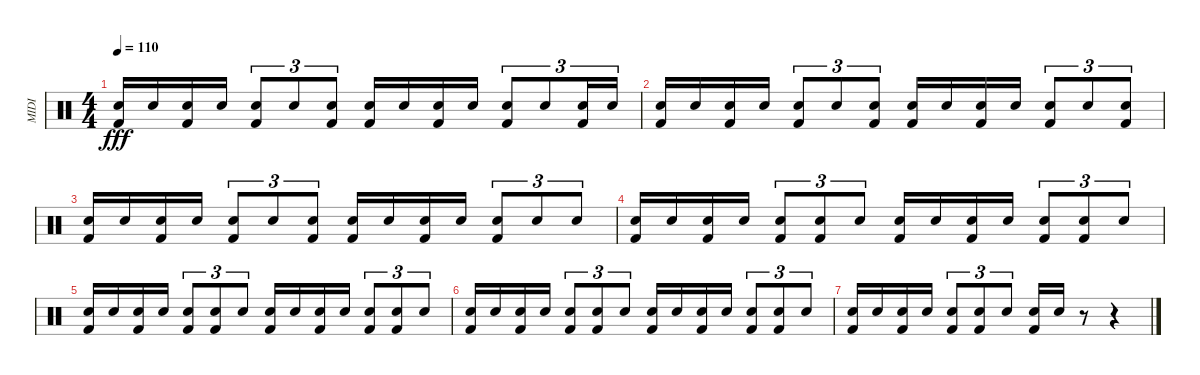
\track ("MIDI" "MIDI") {instrument percussion}
\staff
\articulation defaults
\ts (4 4)
\tempo 110
\clef neutral
\ks c
("Kick (hit) 2" "Snare (hit)").16{dy fff} "Snare (hit)".16 ("Kick (hit) 2" "Snare (hit)").16 "Snare (hit)".16 ("Kick (hit) 2" "Snare (hit)").8{tu (3 2)} "Snare (hit)".8{tu (3 2)} ("Kick (hit) 2" "Snare (hit)").8{tu (3 2)} ("Kick (hit) 2" "Snare (hit)").16 "Snare (hit)".16 ("Kick (hit) 2" "Snare (hit)").16 "Snare (hit)".16 ("Kick (hit) 2" "Snare (hit)").8{tu (3 2)} "Snare (hit)".8{tu (3 2)} ("Kick (hit) 2" "Snare (hit)").16{tu (3 2)} "Snare (hit)".16{tu (3 2)} |
("Kick (hit) 2" "Snare (hit)").16 "Snare (hit)".16 ("Kick (hit) 2" "Snare (hit)").16 "Snare (hit)".16 ("Kick (hit) 2" "Snare (hit)").8{tu (3 2)} "Snare (hit)".8{tu (3 2)} ("Kick (hit) 2" "Snare (hit)").8{tu (3 2)} ("Kick (hit) 2" "Snare (hit)").16 "Snare (hit)".16 ("Kick (hit) 2" "Snare (hit)").16 "Snare (hit)".16 ("Kick (hit) 2" "Snare (hit)").8{tu (3 2)} "Snare (hit)".8{tu (3 2)} ("Kick (hit) 2" "Snare (hit)").8{tu (3 2)} |
("Kick (hit) 2" "Snare (hit)").16 "Snare (hit)".16 ("Kick (hit) 2" "Snare (hit)").16 "Snare (hit)".16 ("Kick (hit) 2" "Snare (hit)").8{tu (3 2)} "Snare (hit)".8{tu (3 2)} ("Kick (hit) 2" "Snare (hit)").8{tu (3 2)} ("Kick (hit) 2" "Snare (hit)").16 "Snare (hit)".16 ("Kick (hit) 2" "Snare (hit)").16 "Snare (hit)".16 ("Kick (hit) 2" "Snare (hit)").8{tu (3 2)} "Snare (hit)".8{tu (3 2)} "Snare (hit)".8{tu (3 2)} |
("Kick (hit) 2" "Snare (hit)").16 "Snare (hit)".16 ("Kick (hit) 2" "Snare (hit)").16 "Snare (hit)".16 ("Kick (hit) 2" "Snare (hit)").8{tu (3 2)} ("Kick (hit) 2" "Snare (hit)").8{tu (3 2)} "Snare (hit)".8{tu (3 2)} ("Kick (hit) 2" "Snare (hit)").16 "Snare (hit)".16 ("Kick (hit) 2" "Snare (hit)").16 "Snare (hit)".16 ("Kick (hit) 2" "Snare (hit)").8{tu (3 2)} ("Kick (hit) 2" "Snare (hit)").8{tu (3 2)} "Snare (hit)".8{tu (3 2)} |
("Kick (hit) 2" "Snare (hit)").16 "Snare (hit)".16 ("Kick (hit) 2" "Snare (hit)").16 "Snare (hit)".16 ("Kick (hit) 2" "Snare (hit)").8{tu (3 2)} ("Kick (hit) 2" "Snare (hit)").8{tu (3 2)} "Snare (hit)".8{tu (3 2)} ("Kick (hit) 2" "Snare (hit)").16 "Snare (hit)".16 ("Kick (hit) 2" "Snare (hit)").16 "Snare (hit)".16 ("Kick (hit) 2" "Snare (hit)").8{tu (3 2)} ("Kick (hit) 2" "Snare (hit)").8{tu (3 2)} "Snare (hit)".8{tu (3 2)} |
("Kick (hit) 2" "Snare (hit)").16 "Snare (hit)".16 ("Kick (hit) 2" "Snare (hit)").16 "Snare (hit)".16 ("Kick (hit) 2" "Snare (hit)").8{tu (3 2)} ("Kick (hit) 2" "Snare (hit)").8{tu (3 2)} "Snare (hit)".8{tu (3 2)} ("Kick (hit) 2" "Snare (hit)").16 "Snare (hit)".16 ("Kick (hit) 2" "Snare (hit)").16 "Snare (hit)".16 ("Kick (hit) 2" "Snare (hit)").8{tu (3 2)} ("Kick (hit) 2" "Snare (hit)").8{tu (3 2)} "Snare (hit)".8{tu (3 2)} |
("Kick (hit) 2" "Snare (hit)").16 "Snare (hit)".16 ("Kick (hit) 2" "Snare (hit)").16 "Snare (hit)".16 ("Kick (hit) 2" "Snare (hit)").8{tu (3 2)} ("Kick (hit) 2" "Snare (hit)").8{tu (3 2)} "Snare (hit)".8{tu (3 2)} ("Kick (hit) 2" "Snare (hit)").16 "Snare (hit)".16 r.8 r.4
